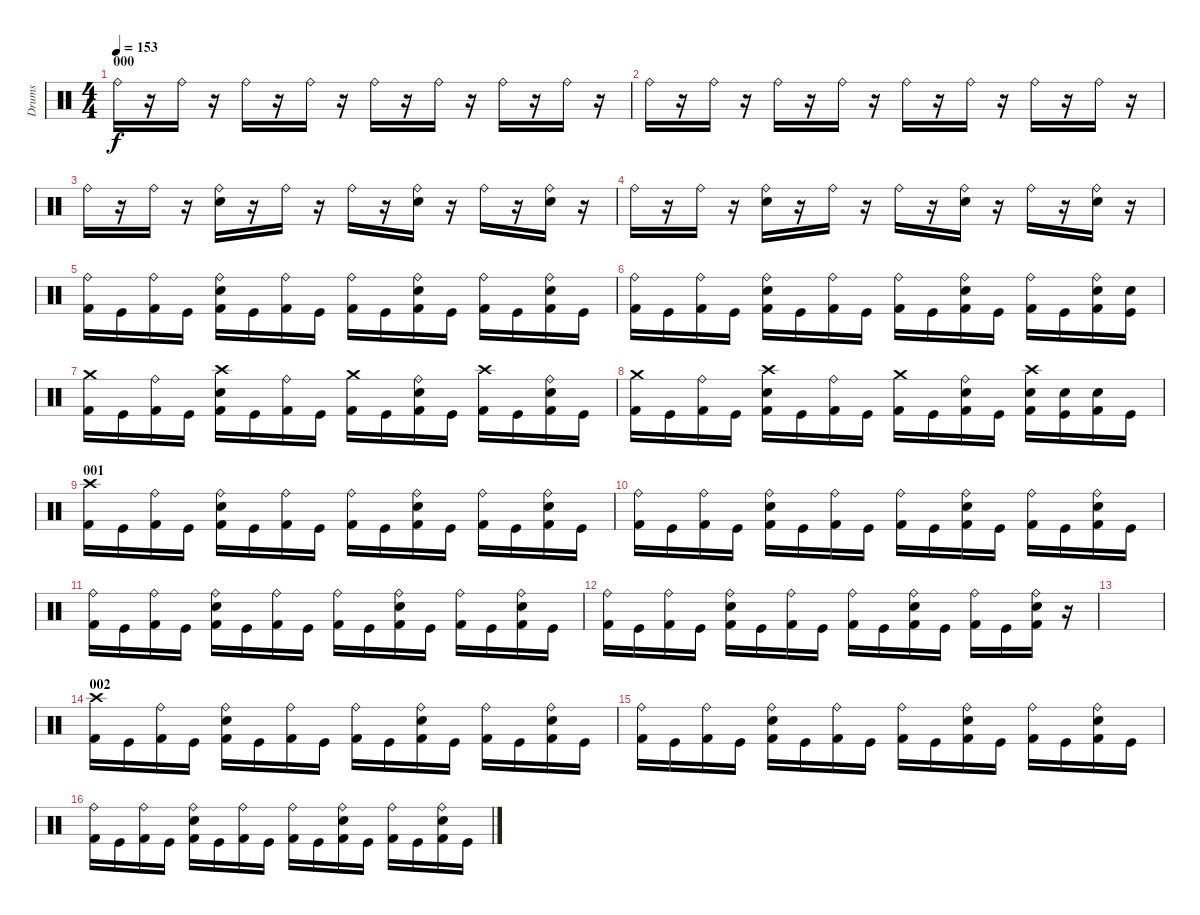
\track ("Drums" "Drums") {instrument percussion}
\staff {score}
\articulation defaults
\ts (4 4)
\section ("" "000")
\tempo 153
\clef neutral
\ks c "Ride (bell)".16{dy f}
r.16 "Ride (bell)".16 r.16 "Ride (bell)".16 r.16 "Ride (bell)".16 r.16 "Ride (bell)".16 r.16 "Ride (bell)".16 r.16 "Ride (bell)".16 r.16 "Ride (bell)".16 r.16 |
"Ride (bell)".16 r.16 "Ride (bell)".16 r.16 "Ride (bell)".16 r.16 "Ride (bell)".16 r.16 "Ride (bell)".16 r.16 "Ride (bell)".16 r.16 "Ride (bell)".16 r.16 "Ride (bell)".16 r.16 |
"Ride (bell)".16 r.16 "Ride (bell)".16 r.16 ("Ride (bell)" "Electric Snare (hit)").16 r.16 "Ride (bell)".16 r.16 "Ride (bell)".16 r.16 ("Ride (bell)" "Electric Snare (hit)").16 r.16 "Ride (bell)".16 r.16 ("Ride (bell)" "Electric Snare (hit)").16 r.16 |
"Ride (bell)".16 r.16 "Ride (bell)".16 r.16 ("Ride (bell)" "Electric Snare (hit)").16 r.16 "Ride (bell)".16 r.16 "Ride (bell)".16 r.16 ("Ride (bell)" "Electric Snare (hit)").16 r.16 "Ride (bell)".16 r.16 ("Ride (bell)" "Electric Snare (hit)").16 r.16 |
("Ride (bell)" "Kick (hit) 2").16 "Kick (hit)".16 ("Ride (bell)" "Kick (hit) 2").16 "Kick (hit)".16 ("Ride (bell)" "Electric Snare (hit)" "Kick (hit) 2").16 "Kick (hit)".16 ("Ride (bell)" "Kick (hit) 2").16 "Kick (hit)".16 ("Ride (bell)" "Kick (hit) 2").16 "Kick (hit)".16 ("Ride (bell)" "Electric Snare (hit)" "Kick (hit) 2").16 "Kick (hit)".16 ("Ride (bell)" "Kick (hit) 2").16 "Kick (hit)".16 ("Ride (bell)" "Electric Snare (hit)" "Kick (hit) 2").16 "Kick (hit)".16 |
("Ride (bell)" "Kick (hit) 2").16 "Kick (hit)".16 ("Ride (bell)" "Kick (hit) 2").16 "Kick (hit)".16 ("Ride (bell)" "Electric Snare (hit)" "Kick (hit) 2").16 "Kick (hit)".16 ("Ride (bell)" "Kick (hit) 2").16 "Kick (hit)".16 ("Ride (bell)" "Kick (hit) 2").16 "Kick (hit)".16 ("Ride (bell)" "Electric Snare (hit)" "Kick (hit) 2").16 "Kick (hit)".16 ("Ride (bell)" "Kick (hit) 2").16 "Kick (hit)".16 ("Ride (bell)" "Electric Snare (hit)" "Kick (hit) 2").16 ("Electric Snare (hit)" "Kick (hit)").16 |
("Crash medium (hit)" "Kick (hit) 2").16 "Kick (hit)".16 ("Ride (bell)" "Kick (hit) 2").16 "Kick (hit)".16 ("Crash high (hit)" "Electric Snare (hit)" "Kick (hit) 2").16 "Kick (hit)".16 ("Ride (bell)" "Kick (hit) 2").16 "Kick (hit)".16 ("Crash medium (hit)" "Kick (hit) 2").16 "Kick (hit)".16 ("Ride (bell)" "Electric Snare (hit)" "Kick (hit) 2").16 "Kick (hit)".16 ("Crash high (hit)" "Kick (hit) 2").16 "Kick (hit)".16 ("Ride (bell)" "Electric Snare (hit)" "Kick (hit) 2").16 "Kick (hit)".16 |
("Crash medium (hit)" "Kick (hit) 2").16 "Kick (hit)".16 ("Ride (bell)" "Kick (hit) 2").16 "Kick (hit)".16 ("Crash high (hit)" "Electric Snare (hit)" "Kick (hit) 2").16 "Kick (hit)".16 ("Ride (bell)" "Kick (hit) 2").16 "Kick (hit)".16 ("Crash medium (hit)" "Kick (hit) 2").16 "Kick (hit)".16 ("Ride (bell)" "Electric Snare (hit)" "Kick (hit) 2").16 "Kick (hit)".16 ("Crash high (hit)" "Electric Snare (hit)" "Kick (hit) 2").16 ("Electric Snare (hit)" "Kick (hit)").16 ("Electric Snare (hit)" "Kick (hit) 2").16 "Kick (hit)".16 |
\section ("" "001")
("Crash high (hit)" "Kick (hit) 2").16 "Kick (hit)".16 ("Ride (bell)" "Kick (hit) 2").16 "Kick (hit)".16 ("Ride (bell)" "Electric Snare (hit)" "Kick (hit) 2").16 "Kick (hit)".16 ("Ride (bell)" "Kick (hit) 2").16 "Kick (hit)".16 ("Ride (bell)" "Kick (hit) 2").16 "Kick (hit)".16 ("Ride (bell)" "Electric Snare (hit)" "Kick (hit) 2").16 "Kick (hit)".16 ("Ride (bell)" "Kick (hit) 2").16 "Kick (hit)".16 ("Ride (bell)" "Electric Snare (hit)" "Kick (hit) 2").16 "Kick (hit)".16 |
("Ride (bell)" "Kick (hit) 2").16 "Kick (hit)".16 ("Ride (bell)" "Kick (hit) 2").16 "Kick (hit)".16 ("Ride (bell)" "Electric Snare (hit)" "Kick (hit) 2").16 "Kick (hit)".16 ("Ride (bell)" "Kick (hit) 2").16 "Kick (hit)".16 ("Ride (bell)" "Kick (hit) 2").16 "Kick (hit)".16 ("Ride (bell)" "Electric Snare (hit)" "Kick (hit) 2").16 "Kick (hit)".16 ("Ride (bell)" "Kick (hit) 2").16 "Kick (hit)".16 ("Ride (bell)" "Electric Snare (hit)" "Kick (hit) 2").16 "Kick (hit)".16 |
("Ride (bell)" "Kick (hit) 2").16 "Kick (hit)".16 ("Ride (bell)" "Kick (hit) 2").16 "Kick (hit)".16 ("Ride (bell)" "Electric Snare (hit)" "Kick (hit) 2").16 "Kick (hit)".16 ("Ride (bell)" "Kick (hit) 2").16 "Kick (hit)".16 ("Ride (bell)" "Kick (hit) 2").16 "Kick (hit)".16 ("Ride (bell)" "Electric Snare (hit)" "Kick (hit) 2").16 "Kick (hit)".16 ("Ride (bell)" "Kick (hit) 2").16 "Kick (hit)".16 ("Ride (bell)" "Electric Snare (hit)" "Kick (hit) 2").16 "Kick (hit)".16 |
("Ride (bell)" "Kick (hit) 2").16 "Kick (hit)".16 ("Ride (bell)" "Kick (hit) 2").16 "Kick (hit)".16 ("Ride (bell)" "Electric Snare (hit)" "Kick (hit) 2").16 "Kick (hit)".16 ("Ride (bell)" "Kick (hit) 2").16 "Kick (hit)".16 ("Ride (bell)" "Kick (hit) 2").16 "Kick (hit)".16 ("Ride (bell)" "Electric Snare (hit)" "Kick (hit) 2").16 "Kick (hit)".16 ("Ride (bell)" "Kick (hit) 2").16 "Kick (hit)".16 ("Ride (bell)" "Electric Snare (hit)" "Kick (hit) 2").16 r.16 |
|
\section ("" "002")
("Crash high (hit)" "Kick (hit) 2").16 "Kick (hit)".16 ("Ride (bell)" "Kick (hit) 2").16 "Kick (hit)".16 ("Ride (bell)" "Electric Snare (hit)" "Kick (hit) 2").16 "Kick (hit)".16 ("Ride (bell)" "Kick (hit) 2").16 "Kick (hit)".16 ("Ride (bell)" "Kick (hit) 2").16 "Kick (hit)".16 ("Ride (bell)" "Electric Snare (hit)" "Kick (hit) 2").16 "Kick (hit)".16 ("Ride (bell)" "Kick (hit) 2").16 "Kick (hit)".16 ("Ride (bell)" "Electric Snare (hit)" "Kick (hit) 2").16 "Kick (hit)".16 |
("Ride (bell)" "Kick (hit) 2").16 "Kick (hit)".16 ("Ride (bell)" "Kick (hit) 2").16 "Kick (hit)".16 ("Ride (bell)" "Electric Snare (hit)" "Kick (hit) 2").16 "Kick (hit)".16 ("Ride (bell)" "Kick (hit) 2").16 "Kick (hit)".16 ("Ride (bell)" "Kick (hit) 2").16 "Kick (hit)".16 ("Ride (bell)" "Electric Snare (hit)" "Kick (hit) 2").16 "Kick (hit)".16 ("Ride (bell)" "Kick (hit) 2").16 "Kick (hit)".16 ("Ride (bell)" "Electric Snare (hit)" "Kick (hit) 2").16 "Kick (hit)".16 |
("Ride (bell)" "Kick (hit) 2").16 "Kick (hit)".16 ("Ride (bell)" "Kick (hit) 2").16 "Kick (hit)".16 ("Ride (bell)" "Electric Snare (hit)" "Kick (hit) 2").16 "Kick (hit)".16 ("Ride (bell)" "Kick (hit) 2").16 "Kick (hit)".16 ("Ride (bell)" "Kick (hit) 2").16 "Kick (hit)".16 ("Ride (bell)" "Electric Snare (hit)" "Kick (hit) 2").16 "Kick (hit)".16 ("Ride (bell)" "Kick (hit) 2").16 "Kick (hit)".16 ("Ride (bell)" "Electric Snare (hit)" "Kick (hit) 2").16 "Kick (hit)".16
